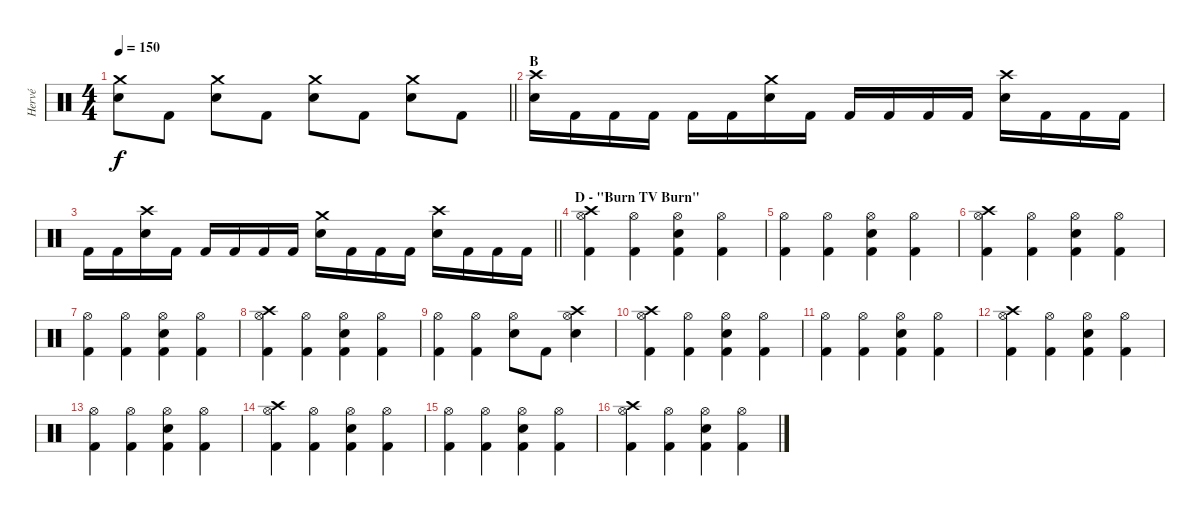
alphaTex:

\track ("Hervé" "Hervé") {instrument percussion}
\staff {score}
\articulation defaults
\ts (4 4)
\tempo 150
\clef neutral
\barLineRight lightlight
\ks c
("Crash medium (hit)" "Snare (hit) 2").8{dy f} "Kick (hit) 2".8 ("Crash medium (hit)" "Snare (hit) 2").8 "Kick (hit) 2".8 ("Crash medium (hit)" "Snare (hit) 2").8 "Kick (hit) 2".8 ("Crash medium (hit)" "Snare (hit) 2").8 "Kick (hit) 2".8 |
\section ("" "B")
("Crash high (hit)" "Snare (hit) 2").16 "Kick (hit) 2".16 "Kick (hit) 2".16 "Kick (hit) 2".16 "Kick (hit) 2".16 "Kick (hit) 2".16 ("Crash medium (hit)" "Snare (hit) 2").16 "Kick (hit) 2".16 "Kick (hit) 2".16 "Kick (hit) 2".16 "Kick (hit) 2".16 "Kick (hit) 2".16 ("Crash high (hit)" "Snare (hit) 2").16 "Kick (hit) 2".16 "Kick (hit) 2".16 "Kick (hit) 2".16 |
\barLineRight lightlight "Kick (hit) 2".16 "Kick (hit) 2".16
("Crash high (hit)" "Snare (hit) 2").16 "Kick (hit) 2".16 "Kick (hit) 2".16 "Kick (hit) 2".16 "Kick (hit) 2".16 "Kick (hit) 2".16 ("Crash medium (hit)" "Snare (hit) 2").16 "Kick (hit) 2".16 "Kick (hit) 2".16 "Kick (hit) 2".16 ("Crash high (hit)" "Snare (hit) 2").16 "Kick (hit) 2".16 "Kick (hit) 2".16 "Kick (hit) 2".16 |
\section ("" "D - \"Burn TV Burn\"")
("Crash high (hit)" "Hi-Hat (open)" "Kick (hit) 2").4 ("Hi-Hat (open)" "Kick (hit) 2").4 ("Hi-Hat (open)" "Snare (hit) 2" "Kick (hit) 2").4 ("Hi-Hat (open)" "Kick (hit) 2").4 |
("Hi-Hat (open)" "Kick (hit) 2").4 ("Hi-Hat (open)" "Kick (hit) 2").4 ("Hi-Hat (open)" "Snare (hit) 2" "Kick (hit) 2").4 ("Hi-Hat (open)" "Kick (hit) 2").4 |
("Crash high (hit)" "Hi-Hat (open)" "Kick (hit) 2").4 ("Hi-Hat (open)" "Kick (hit) 2").4 ("Hi-Hat (open)" "Snare (hit) 2" "Kick (hit) 2").4 ("Hi-Hat (open)" "Kick (hit) 2").4 |
("Hi-Hat (open)" "Kick (hit) 2").4 ("Hi-Hat (open)" "Kick (hit) 2").4 ("Hi-Hat (open)" "Snare (hit) 2" "Kick (hit) 2").4 ("Hi-Hat (open)" "Kick (hit) 2").4 |
("Crash high (hit)" "Hi-Hat (open)" "Kick (hit) 2").4 ("Hi-Hat (open)" "Kick (hit) 2").4 ("Hi-Hat (open)" "Snare (hit) 2" "Kick (hit) 2").4 ("Hi-Hat (open)" "Kick (hit) 2").4 |
("Hi-Hat (open)" "Kick (hit) 2").4 ("Hi-Hat (open)" "Kick (hit) 2").4 ("Hi-Hat (open)" "Snare (hit) 2").8 "Kick (hit) 2".8 ("Crash high (hit)" "Hi-Hat (open)" "Snare (hit) 2").4 |
("Crash high (hit)" "Hi-Hat (open)" "Kick (hit) 2").4 ("Hi-Hat (open)" "Kick (hit) 2").4 ("Hi-Hat (open)" "Snare (hit) 2" "Kick (hit) 2").4 ("Hi-Hat (open)" "Kick (hit) 2").4 |
("Hi-Hat (open)" "Kick (hit) 2").4 ("Hi-Hat (open)" "Kick (hit) 2").4 ("Hi-Hat (open)" "Snare (hit) 2" "Kick (hit) 2").4 ("Hi-Hat (open)" "Kick (hit) 2").4 |
("Crash high (hit)" "Hi-Hat (open)" "Kick (hit) 2").4 ("Hi-Hat (open)" "Kick (hit) 2").4 ("Hi-Hat (open)" "Snare (hit) 2" "Kick (hit) 2").4 ("Hi-Hat (open)" "Kick (hit) 2").4 |
("Hi-Hat (open)" "Kick (hit) 2").4 ("Hi-Hat (open)" "Kick (hit) 2").4 ("Hi-Hat (open)" "Snare (hit) 2" "Kick (hit) 2").4 ("Hi-Hat (open)" "Kick (hit) 2").4 |
("Crash high (hit)" "Hi-Hat (open)" "Kick (hit) 2").4 ("Hi-Hat (open)" "Kick (hit) 2").4 ("Hi-Hat (open)" "Snare (hit) 2" "Kick (hit) 2").4 ("Hi-Hat (open)" "Kick (hit) 2").4 |
("Hi-Hat (open)" "Kick (hit) 2").4 ("Hi-Hat (open)" "Kick (hit) 2").4 ("Hi-Hat (open)" "Snare (hit) 2" "Kick (hit) 2").4 ("Hi-Hat (open)" "Kick (hit) 2").4 |
("Crash high (hit)" "Hi-Hat (open)" "Kick (hit) 2").4 ("Hi-Hat (open)" "Kick (hit) 2").4 ("Hi-Hat (open)" "Snare (hit) 2" "Kick (hit) 2").4 ("Hi-Hat (open)" "Kick (hit) 2").4
